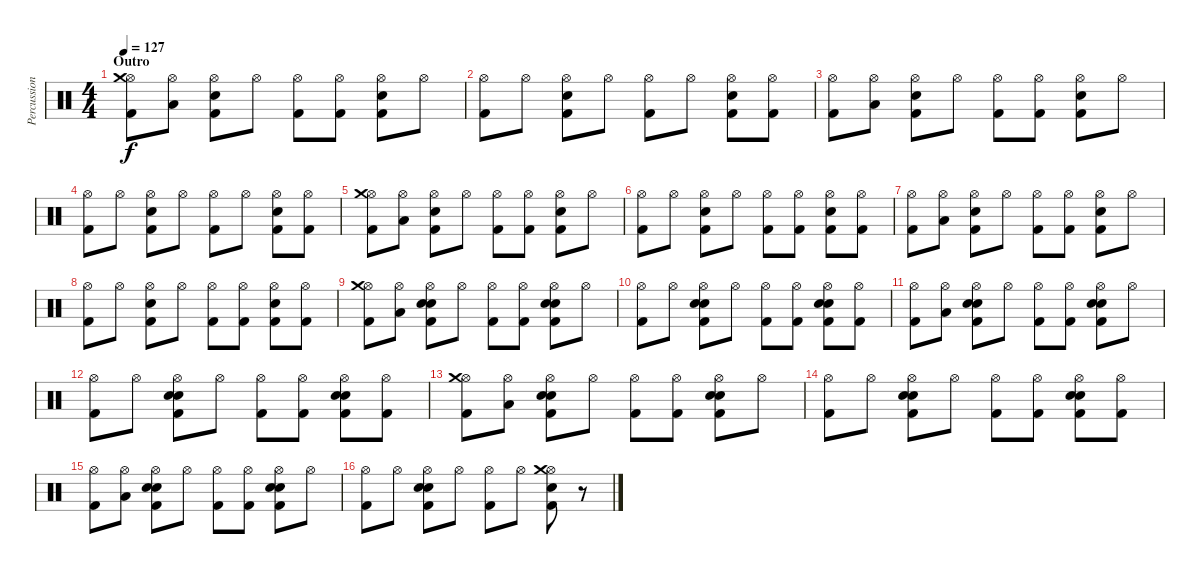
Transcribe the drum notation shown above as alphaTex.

\track ("Percussion" "Percussion") {instrument percussion}
\staff {score}
\articulation defaults
\ts (4 4)
\section ("" "Outro")
\tempo 127
\clef neutral
\ks c
("Hi-Hat (open)" "Crash medium (hit)" "Kick (hit) 2").8{dy f} ("Hi-Hat (open)" "Low Floor Tom (hit)").8 ("Hi-Hat (open)" "Electric Snare (hit)" "Kick (hit) 2").8 "Hi-Hat (open)".8 ("Hi-Hat (open)" "Kick (hit) 2").8 ("Hi-Hat (open)" "Kick (hit) 2").8 ("Hi-Hat (open)" "Electric Snare (hit)" "Kick (hit) 2").8 "Hi-Hat (open)".8 |
("Hi-Hat (open)" "Kick (hit) 2").8 "Hi-Hat (open)".8 ("Hi-Hat (open)" "Electric Snare (hit)" "Kick (hit) 2").8 "Hi-Hat (open)".8 ("Hi-Hat (open)" "Kick (hit) 2").8 "Hi-Hat (open)".8 ("Hi-Hat (open)" "Electric Snare (hit)" "Kick (hit) 2").8 ("Hi-Hat (open)" "Kick (hit) 2").8 |
("Hi-Hat (open)" "Kick (hit) 2").8 ("Hi-Hat (open)" "Low Floor Tom (hit)").8 ("Hi-Hat (open)" "Electric Snare (hit)" "Kick (hit) 2").8 "Hi-Hat (open)".8 ("Hi-Hat (open)" "Kick (hit) 2").8 ("Hi-Hat (open)" "Kick (hit) 2").8 ("Hi-Hat (open)" "Electric Snare (hit)" "Kick (hit) 2").8 "Hi-Hat (open)".8 |
("Hi-Hat (open)" "Kick (hit) 2").8 "Hi-Hat (open)".8 ("Hi-Hat (open)" "Electric Snare (hit)" "Kick (hit) 2").8 "Hi-Hat (open)".8 ("Hi-Hat (open)" "Kick (hit) 2").8 "Hi-Hat (open)".8 ("Hi-Hat (open)" "Electric Snare (hit)" "Kick (hit) 2").8 ("Hi-Hat (open)" "Kick (hit) 2").8 |
("Hi-Hat (open)" "Crash medium (hit)" "Kick (hit) 2").8 ("Hi-Hat (open)" "Low Floor Tom (hit)").8 ("Hi-Hat (open)" "Electric Snare (hit)" "Kick (hit) 2").8 "Hi-Hat (open)".8 ("Hi-Hat (open)" "Kick (hit) 2").8 ("Hi-Hat (open)" "Kick (hit) 2").8 ("Hi-Hat (open)" "Electric Snare (hit)" "Kick (hit) 2").8 "Hi-Hat (open)".8 |
("Hi-Hat (open)" "Kick (hit) 2").8 "Hi-Hat (open)".8 ("Hi-Hat (open)" "Electric Snare (hit)" "Kick (hit) 2").8 "Hi-Hat (open)".8 ("Hi-Hat (open)" "Kick (hit) 2").8 ("Hi-Hat (open)" "Kick (hit) 2").8 ("Hi-Hat (open)" "Electric Snare (hit)" "Kick (hit) 2").8 ("Hi-Hat (open)" "Kick (hit) 2").8 |
("Hi-Hat (open)" "Kick (hit) 2").8 ("Hi-Hat (open)" "Low Floor Tom (hit)").8 ("Hi-Hat (open)" "Electric Snare (hit)" "Kick (hit) 2").8 "Hi-Hat (open)".8 ("Hi-Hat (open)" "Kick (hit) 2").8 ("Hi-Hat (open)" "Kick (hit) 2").8 ("Hi-Hat (open)" "Electric Snare (hit)" "Kick (hit) 2").8 "Hi-Hat (open)".8 |
("Hi-Hat (open)" "Kick (hit) 2").8 "Hi-Hat (open)".8 ("Hi-Hat (open)" "Electric Snare (hit)" "Kick (hit) 2").8 "Hi-Hat (open)".8 ("Hi-Hat (open)" "Kick (hit) 2").8 ("Hi-Hat (open)" "Kick (hit) 2").8 ("Hi-Hat (open)" "Electric Snare (hit)" "Kick (hit) 2").8 ("Hi-Hat (open)" "Kick (hit) 2").8 |
("Hi-Hat (open)" "Crash medium (hit)" "Kick (hit) 2").8 ("Hi-Hat (open)" "Low Floor Tom (hit)").8 ("Hi-Hat (open)" "Hand Clap (hit)" "Electric Snare (hit)" "Kick (hit) 2").8 "Hi-Hat (open)".8 ("Hi-Hat (open)" "Kick (hit) 2").8 ("Hi-Hat (open)" "Kick (hit) 2").8 ("Hi-Hat (open)" "Hand Clap (hit)" "Electric Snare (hit)" "Kick (hit) 2").8 "Hi-Hat (open)".8 |
("Hi-Hat (open)" "Kick (hit) 2").8 "Hi-Hat (open)".8 ("Hi-Hat (open)" "Hand Clap (hit)" "Electric Snare (hit)" "Kick (hit) 2").8 "Hi-Hat (open)".8 ("Hi-Hat (open)" "Kick (hit) 2").8 ("Hi-Hat (open)" "Kick (hit) 2").8 ("Hi-Hat (open)" "Hand Clap (hit)" "Electric Snare (hit)" "Kick (hit) 2").8 ("Hi-Hat (open)" "Kick (hit) 2").8 |
("Hi-Hat (open)" "Kick (hit) 2").8 ("Hi-Hat (open)" "Low Floor Tom (hit)").8 ("Hi-Hat (open)" "Hand Clap (hit)" "Electric Snare (hit)" "Kick (hit) 2").8 "Hi-Hat (open)".8 ("Hi-Hat (open)" "Kick (hit) 2").8 ("Hi-Hat (open)" "Kick (hit) 2").8 ("Hi-Hat (open)" "Hand Clap (hit)" "Electric Snare (hit)" "Kick (hit) 2").8 "Hi-Hat (open)".8 |
("Hi-Hat (open)" "Kick (hit) 2").8 "Hi-Hat (open)".8 ("Hi-Hat (open)" "Hand Clap (hit)" "Electric Snare (hit)" "Kick (hit) 2").8 "Hi-Hat (open)".8 ("Hi-Hat (open)" "Kick (hit) 2").8 ("Hi-Hat (open)" "Kick (hit) 2").8 ("Hi-Hat (open)" "Hand Clap (hit)" "Electric Snare (hit)" "Kick (hit) 2").8 ("Hi-Hat (open)" "Kick (hit) 2").8 |
("Hi-Hat (open)" "Crash medium (hit)" "Kick (hit) 2").8 ("Hi-Hat (open)" "Low Floor Tom (hit)").8 ("Hi-Hat (open)" "Hand Clap (hit)" "Electric Snare (hit)" "Kick (hit) 2").8 "Hi-Hat (open)".8 ("Hi-Hat (open)" "Kick (hit) 2").8 ("Hi-Hat (open)" "Kick (hit) 2").8 ("Hi-Hat (open)" "Hand Clap (hit)" "Electric Snare (hit)" "Kick (hit) 2").8 "Hi-Hat (open)".8 |
("Hi-Hat (open)" "Kick (hit) 2").8 "Hi-Hat (open)".8 ("Hi-Hat (open)" "Hand Clap (hit)" "Electric Snare (hit)" "Kick (hit) 2").8 "Hi-Hat (open)".8 ("Hi-Hat (open)" "Kick (hit) 2").8 ("Hi-Hat (open)" "Kick (hit) 2").8 ("Hi-Hat (open)" "Hand Clap (hit)" "Electric Snare (hit)" "Kick (hit) 2").8 ("Hi-Hat (open)" "Kick (hit) 2").8 |
("Hi-Hat (open)" "Kick (hit) 2").8 ("Hi-Hat (open)" "Low Floor Tom (hit)").8 ("Hi-Hat (open)" "Hand Clap (hit)" "Electric Snare (hit)" "Kick (hit) 2").8 "Hi-Hat (open)".8 ("Hi-Hat (open)" "Kick (hit) 2").8 ("Hi-Hat (open)" "Kick (hit) 2").8 ("Hi-Hat (open)" "Hand Clap (hit)" "Electric Snare (hit)" "Kick (hit) 2").8 "Hi-Hat (open)".8 |
("Hi-Hat (open)" "Kick (hit) 2").8 "Hi-Hat (open)".8 ("Hi-Hat (open)" "Hand Clap (hit)" "Electric Snare (hit)" "Kick (hit) 2").8 "Hi-Hat (open)".8 ("Hi-Hat (open)" "Kick (hit) 2").8 "Hi-Hat (open)".8 ("Hi-Hat (open)" "Crash medium (hit)" "Electric Snare (hit)" "Kick (hit) 2").8 r.8
